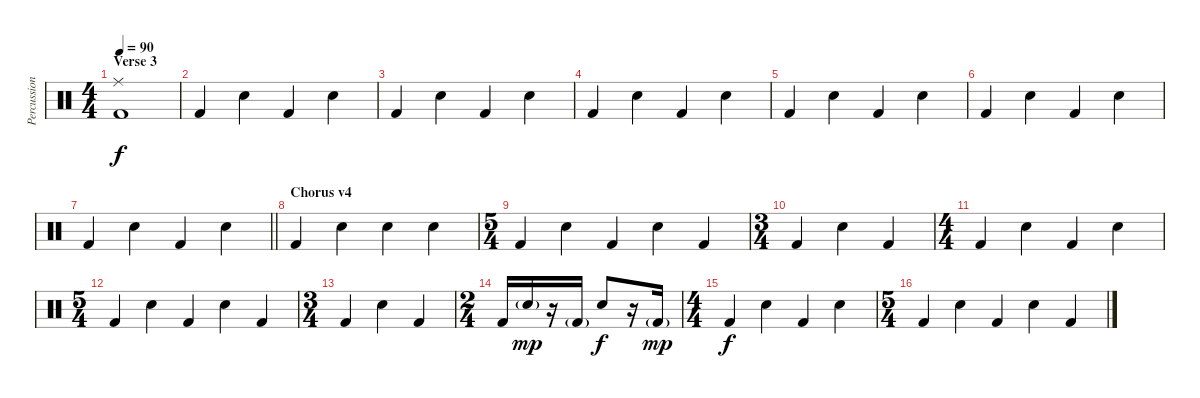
\track ("Percussion" "Percussion") {instrument percussion}
\staff {score}
\articulation defaults
\ts (4 4)
\section ("" "Verse 3")
\tempo 90
\clef neutral
\ks c
("Ride (middle)" "Kick (hit) 2").1{dy f} |
"Kick (hit) 2".4 "Snare (hit) 2".4 "Kick (hit) 2".4 "Snare (hit) 2".4 |
"Kick (hit) 2".4 "Snare (hit) 2".4 "Kick (hit) 2".4 "Snare (hit) 2".4 |
"Kick (hit) 2".4 "Snare (hit) 2".4 "Kick (hit) 2".4 "Snare (hit) 2".4 |
"Kick (hit) 2".4 "Snare (hit) 2".4 "Kick (hit) 2".4 "Snare (hit) 2".4 |
"Kick (hit) 2".4 "Snare (hit) 2".4 "Kick (hit) 2".4 "Snare (hit) 2".4 |
\barLineRight lightlight "Kick (hit) 2".4 "Snare (hit) 2".4 "Kick (hit) 2".4 "Snare (hit) 2".4
|
\section ("" "Chorus v4")
"Kick (hit) 2".4 "Snare (hit) 2".4 "Snare (hit) 2".4 "Snare (hit) 2".4 |
\ts (5 4)
"Kick (hit) 2".4 "Snare (hit) 2".4 "Kick (hit) 2".4 "Snare (hit) 2".4 "Kick (hit) 2".4 |
\ts (3 4)
"Kick (hit) 2".4 "Snare (hit) 2".4 "Kick (hit) 2".4 |
\ts (4 4)
"Kick (hit) 2".4 "Snare (hit) 2".4 "Kick (hit) 2".4 "Snare (hit) 2".4 |
\ts (5 4)
"Kick (hit) 2".4 "Snare (hit) 2".4 "Kick (hit) 2".4 "Snare (hit) 2".4 "Kick (hit) 2".4 |
\ts (3 4)
"Kick (hit) 2".4 "Snare (hit) 2".4 "Kick (hit) 2".4 |
\ts (2 4)
"Kick (hit) 2".16 "Snare (hit) 2"{g}.16{dy mp} r.16 "Kick (hit) 2"{g}.16 "Snare (hit) 2".8{dy f} r.16 "Kick (hit) 2"{g}.16{dy mp} |
\ts (4 4)
"Kick (hit) 2".4{dy f} "Snare (hit) 2".4 "Kick (hit) 2".4 "Snare (hit) 2".4 |
\ts (5 4)
"Kick (hit) 2".4 "Snare (hit) 2".4 "Kick (hit) 2".4 "Snare (hit) 2".4 "Kick (hit) 2".4
